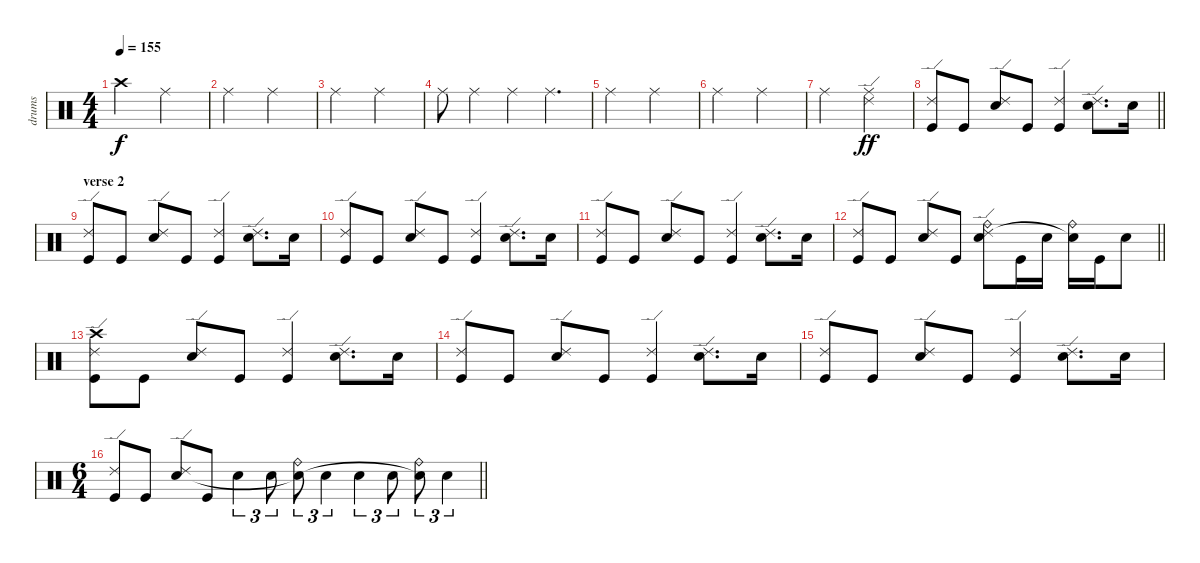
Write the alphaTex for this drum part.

\track ("drums" "drums") {instrument percussion}
\staff {score}
\articulation defaults
\ts (4 4)
\tempo 155
\clef neutral
\ks c "Crash high (hit)"{t}.2{dy f} "Ride (middle)".2
|
"Ride (middle)".2 "Ride (middle)".2 |
"Ride (middle)".2 "Ride (middle)".2 |
"Ride (middle)".8 "Ride (middle)".4 "Ride (middle)".4 "Ride (middle)".4{d} |
"Ride (middle)".2 "Ride (middle)".2 |
"Ride (middle)".2 "Ride (middle)".2 |
"Ride (middle)".2 ("Ride (edge) 2" "Ride (middle)").2{dy ff} |
\barLineRight lightlight
("Ride (edge) 2" "Kick (hit)").8 "Kick (hit)".8 ("Ride (edge) 2" "Electric Snare (hit)").8 "Kick (hit)".8 ("Ride (edge) 2" "Kick (hit)").4 ("Ride (edge) 2" "Electric Snare (hit)").8{d} "Electric Snare (hit)".16 |
\section ("" "verse 2")
("Ride (edge) 2" "Kick (hit)").8 "Kick (hit)".8 ("Ride (edge) 2" "Electric Snare (hit)").8 "Kick (hit)".8 ("Ride (edge) 2" "Kick (hit)").4 ("Ride (edge) 2" "Electric Snare (hit)").8{d} "Electric Snare (hit)".16 |
("Ride (edge) 2" "Kick (hit)").8 "Kick (hit)".8 ("Ride (edge) 2" "Electric Snare (hit)").8 "Kick (hit)".8 ("Ride (edge) 2" "Kick (hit)").4 ("Ride (edge) 2" "Electric Snare (hit)").8{d} "Electric Snare (hit)".16 |
("Ride (edge) 2" "Kick (hit)").8 "Kick (hit)".8 ("Ride (edge) 2" "Electric Snare (hit)").8 "Kick (hit)".8 ("Ride (edge) 2" "Kick (hit)").4 ("Ride (edge) 2" "Electric Snare (hit)").8{d} "Electric Snare (hit)".16 |
\barLineRight lightlight
("Ride (edge) 2" "Kick (hit)").8 "Kick (hit)".8 ("Ride (edge) 2" "Electric Snare (hit)").8 "Kick (hit)".8 ("Ride (bell)" "Ride (edge) 2" "Electric Snare (hit)").8 "Kick (hit)".16 "Electric Snare (hit)".16 ("Ride (bell)" "Electric Snare (hit)"{t}).16 "Kick (hit)".16 "Electric Snare (hit)".8 |
("Crash high (hit)" "Ride (edge) 2" "Kick (hit)").8 "Kick (hit)".8 ("Ride (edge) 2" "Electric Snare (hit)").8 "Kick (hit)".8 ("Ride (edge) 2" "Kick (hit)").4 ("Ride (edge) 2" "Electric Snare (hit)").8{d} "Electric Snare (hit)".16 |
("Ride (edge) 2" "Kick (hit)").8 "Kick (hit)".8 ("Ride (edge) 2" "Electric Snare (hit)").8 "Kick (hit)".8 ("Ride (edge) 2" "Kick (hit)").4 ("Ride (edge) 2" "Electric Snare (hit)").8{d} "Electric Snare (hit)".16 |
("Ride (edge) 2" "Kick (hit)").8 "Kick (hit)".8 ("Ride (edge) 2" "Electric Snare (hit)").8 "Kick (hit)".8 ("Ride (edge) 2" "Kick (hit)").4 ("Ride (edge) 2" "Electric Snare (hit)").8{d} "Electric Snare (hit)".16 |
\ts (6 4)
\barLineRight lightlight
("Ride (edge) 2" "Kick (hit)").8 "Kick (hit)".8 ("Ride (edge) 2" "Electric Snare (hit)").8 "Kick (hit)".8 "Electric Snare (hit)".4{tu (3 2)} "Electric Snare (hit)".8{tu (3 2)} ("Ride (bell)" "Electric Snare (hit)"{t}).8{tu (3 2)} "Electric Snare (hit)".4{tu (3 2)} "Electric Snare (hit)".4{tu (3 2)} "Electric Snare (hit)".8{tu (3 2)} ("Ride (bell)" "Electric Snare (hit)"{t}).8{tu (3 2)} "Electric Snare (hit)".4{tu (3 2)}
